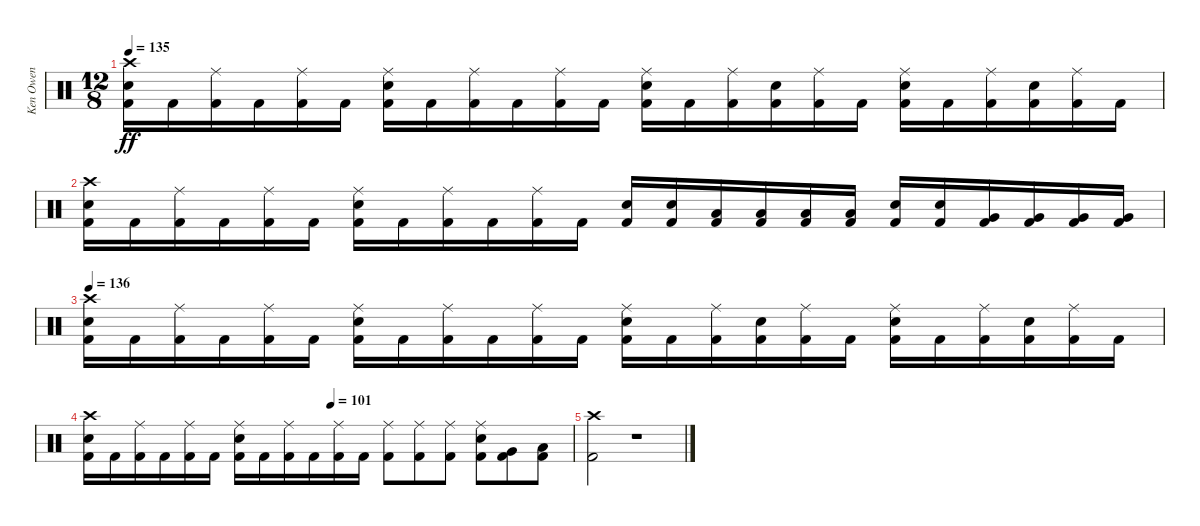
\track ("Ken Owen" "Ken Owen") {instrument percussion}
\staff {score}
\articulation defaults
\ts (12 8)
\tempo 135
\clef neutral
\ks c
("Crash high (hit)" "Snare (hit) 2" "Kick (hit) 2").16{dy ff} "Kick (hit) 2".16 ("Ride (middle)" "Kick (hit) 2").16 "Kick (hit) 2".16 ("Ride (middle)" "Kick (hit) 2").16 "Kick (hit) 2".16 ("Ride (middle)" "Snare (hit) 2" "Kick (hit) 2").16 "Kick (hit) 2".16 ("Ride (middle)" "Kick (hit) 2").16 "Kick (hit) 2".16 ("Ride (middle)" "Kick (hit) 2").16 "Kick (hit) 2".16 ("Ride (middle)" "Snare (hit) 2" "Kick (hit) 2").16 "Kick (hit) 2".16 ("Ride (middle)" "Kick (hit) 2").16 ("Snare (hit) 2" "Kick (hit) 2").16 ("Ride (middle)" "Kick (hit) 2").16 "Kick (hit) 2".16 ("Ride (middle)" "Snare (hit) 2" "Kick (hit) 2").16 "Kick (hit) 2".16 ("Ride (middle)" "Kick (hit) 2").16 ("Snare (hit) 2" "Kick (hit) 2").16 ("Ride (middle)" "Kick (hit) 2").16 "Kick (hit) 2".16 |
("Crash high (hit)" "Snare (hit) 2" "Kick (hit) 2").16 "Kick (hit) 2".16 ("Ride (middle)" "Kick (hit) 2").16 "Kick (hit) 2".16 ("Ride (middle)" "Kick (hit) 2").16 "Kick (hit) 2".16 ("Ride (middle)" "Snare (hit) 2" "Kick (hit) 2").16 "Kick (hit) 2".16 ("Ride (middle)" "Kick (hit) 2").16 "Kick (hit) 2".16 ("Ride (middle)" "Kick (hit) 2").16 "Kick (hit) 2".16 ("Snare (hit) 2" "Kick (hit) 2").16 ("Snare (hit) 2" "Kick (hit) 2").16 ("Low Tom (hit)" "Kick (hit) 2").16 ("Low Tom (hit)" "Kick (hit) 2").16 ("Low Tom (hit)" "Kick (hit) 2").16 ("Low Tom (hit)" "Kick (hit) 2").16 ("Snare (hit) 2" "Kick (hit) 2").16 ("Snare (hit) 2" "Kick (hit) 2").16 ("Very Low Tom (hit)" "Kick (hit) 2").16 ("Very Low Tom (hit)" "Kick (hit) 2").16 ("Very Low Tom (hit)" "Kick (hit) 2").16 ("Very Low Tom (hit)" "Kick (hit) 2").16 |
\tempo 136
("Crash high (hit)" "Snare (hit) 2" "Kick (hit) 2").16 "Kick (hit) 2".16 ("Ride (middle)" "Kick (hit) 2").16 "Kick (hit) 2".16 ("Ride (middle)" "Kick (hit) 2").16 "Kick (hit) 2".16 ("Ride (middle)" "Snare (hit) 2" "Kick (hit) 2").16 "Kick (hit) 2".16 ("Ride (middle)" "Kick (hit) 2").16 "Kick (hit) 2".16 ("Ride (middle)" "Kick (hit) 2").16 "Kick (hit) 2".16 ("Ride (middle)" "Snare (hit) 2" "Kick (hit) 2").16 "Kick (hit) 2".16 ("Ride (middle)" "Kick (hit) 2").16 ("Snare (hit) 2" "Kick (hit) 2").16 ("Ride (middle)" "Kick (hit) 2").16 "Kick (hit) 2".16 ("Ride (middle)" "Snare (hit) 2" "Kick (hit) 2").16 "Kick (hit) 2".16 ("Ride (middle)" "Kick (hit) 2").16 ("Snare (hit) 2" "Kick (hit) 2").16 ("Ride (middle)" "Kick (hit) 2").16 "Kick (hit) 2".16 |
\tempo (101 0.5)
("Crash high (hit)" "Snare (hit) 2" "Kick (hit) 2").16 "Kick (hit) 2".16 ("Ride (middle)" "Kick (hit) 2").16 "Kick (hit) 2".16 ("Ride (middle)" "Kick (hit) 2").16 "Kick (hit) 2".16 ("Ride (middle)" "Snare (hit) 2" "Kick (hit) 2").16 "Kick (hit) 2".16 ("Ride (middle)" "Kick (hit) 2").16 "Kick (hit) 2".16 ("Ride (middle)" "Kick (hit) 2").16 "Kick (hit) 2".16 ("Ride (middle)" "Kick (hit) 2").8 ("Ride (middle)" "Kick (hit) 2").8 ("Ride (middle)" "Kick (hit) 2").8 ("Ride (middle)" "Snare (hit) 2" "Kick (hit) 2").8 ("Very Low Tom (hit)" "Kick (hit) 2").8 ("Low Tom (hit)" "Kick (hit) 2").8 |
("Crash high (hit)" "Kick (hit) 2").2 r.1
